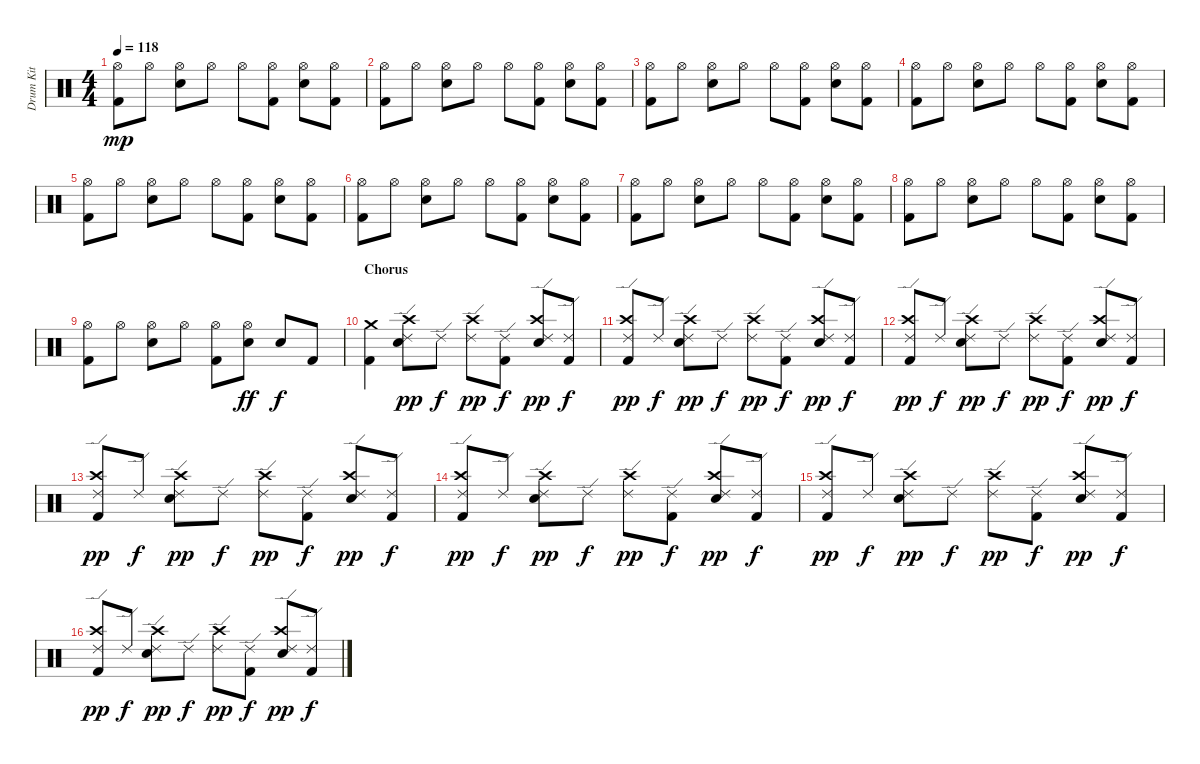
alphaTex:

\track ("Drum Kit" "Drum Kit") {instrument percussion}
\staff {score}
\articulation defaults
\ts (4 4)
\tempo 118
\clef neutral
\ks c
("Hi-Hat (open)" "Kick (hit) 2").8{dy mp} "Hi-Hat (open)".8 ("Hi-Hat (open)" "Electric Snare (hit)").8 "Hi-Hat (open)".8 "Hi-Hat (open)".8 ("Hi-Hat (open)" "Kick (hit) 2").8 ("Hi-Hat (open)" "Electric Snare (hit)").8 ("Hi-Hat (open)" "Kick (hit) 2").8 |
("Hi-Hat (open)" "Kick (hit) 2").8 "Hi-Hat (open)".8 ("Hi-Hat (open)" "Electric Snare (hit)").8 "Hi-Hat (open)".8 "Hi-Hat (open)".8 ("Hi-Hat (open)" "Kick (hit) 2").8 ("Hi-Hat (open)" "Electric Snare (hit)").8 ("Hi-Hat (open)" "Kick (hit) 2").8 |
("Hi-Hat (open)" "Kick (hit) 2").8 "Hi-Hat (open)".8 ("Hi-Hat (open)" "Electric Snare (hit)").8 "Hi-Hat (open)".8 "Hi-Hat (open)".8 ("Hi-Hat (open)" "Kick (hit) 2").8 ("Hi-Hat (open)" "Electric Snare (hit)").8 ("Hi-Hat (open)" "Kick (hit) 2").8 |
("Hi-Hat (open)" "Kick (hit) 2").8 "Hi-Hat (open)".8 ("Hi-Hat (open)" "Electric Snare (hit)").8 "Hi-Hat (open)".8 "Hi-Hat (open)".8 ("Hi-Hat (open)" "Kick (hit) 2").8 ("Hi-Hat (open)" "Electric Snare (hit)").8 ("Hi-Hat (open)" "Kick (hit) 2").8 |
("Hi-Hat (open)" "Kick (hit) 2").8 "Hi-Hat (open)".8 ("Hi-Hat (open)" "Electric Snare (hit)").8 "Hi-Hat (open)".8 "Hi-Hat (open)".8 ("Hi-Hat (open)" "Kick (hit) 2").8 ("Hi-Hat (open)" "Electric Snare (hit)").8 ("Hi-Hat (open)" "Kick (hit) 2").8 |
("Hi-Hat (open)" "Kick (hit) 2").8 "Hi-Hat (open)".8 ("Hi-Hat (open)" "Electric Snare (hit)").8 "Hi-Hat (open)".8 "Hi-Hat (open)".8 ("Hi-Hat (open)" "Kick (hit) 2").8 ("Hi-Hat (open)" "Electric Snare (hit)").8 ("Hi-Hat (open)" "Kick (hit) 2").8 |
("Hi-Hat (open)" "Kick (hit) 2").8 "Hi-Hat (open)".8 ("Hi-Hat (open)" "Electric Snare (hit)").8 "Hi-Hat (open)".8 "Hi-Hat (open)".8 ("Hi-Hat (open)" "Kick (hit) 2").8 ("Hi-Hat (open)" "Electric Snare (hit)").8 ("Hi-Hat (open)" "Kick (hit) 2").8 |
("Hi-Hat (open)" "Kick (hit) 2").8 "Hi-Hat (open)".8 ("Hi-Hat (open)" "Electric Snare (hit)").8 "Hi-Hat (open)".8 "Hi-Hat (open)".8 ("Hi-Hat (open)" "Kick (hit) 2").8 ("Hi-Hat (open)" "Electric Snare (hit)").8 ("Hi-Hat (open)" "Kick (hit) 2").8 |
("Hi-Hat (open)" "Kick (hit) 2").8 "Hi-Hat (open)".8 ("Hi-Hat (open)" "Electric Snare (hit)").8 "Hi-Hat (open)".8 ("Hi-Hat (open)" "Kick (hit) 2").8 ("Snare (hit)"{x} "Hi-Hat (open)").8{dy ff} "Electric Snare (hit)".8{dy f} "Kick (hit) 2".8 |
\section ("" "Chorus")
("Crash medium (hit)" "Kick (hit) 2").4 ("Crash high (hit)" "Ride (edge) 2" "Electric Snare (hit)").8{dy pp} "Ride (edge) 2".8{dy f} ("Crash high (hit)" "Ride (edge) 2").8{dy pp} ("Ride (edge) 2" "Kick (hit) 2").8{dy f} ("Crash high (hit)" "Ride (edge) 2" "Electric Snare (hit)").8{dy pp} ("Ride (edge) 2" "Kick (hit) 2").8{dy f} |
("Crash high (hit)" "Ride (edge) 2" "Kick (hit) 2").8{dy pp} "Ride (edge) 2".8{dy f} ("Crash high (hit)" "Ride (edge) 2" "Electric Snare (hit)").8{dy pp} "Ride (edge) 2".8{dy f} ("Crash high (hit)" "Ride (edge) 2").8{dy pp} ("Ride (edge) 2" "Kick (hit) 2").8{dy f} ("Crash high (hit)" "Ride (edge) 2" "Electric Snare (hit)").8{dy pp} ("Ride (edge) 2" "Kick (hit) 2").8{dy f} |
("Crash high (hit)" "Ride (edge) 2" "Kick (hit) 2").8{dy pp} "Ride (edge) 2".8{dy f} ("Crash high (hit)" "Ride (edge) 2" "Electric Snare (hit)").8{dy pp} "Ride (edge) 2".8{dy f} ("Crash high (hit)" "Ride (edge) 2").8{dy pp} ("Ride (edge) 2" "Kick (hit) 2").8{dy f} ("Crash high (hit)" "Ride (edge) 2" "Electric Snare (hit)").8{dy pp} ("Ride (edge) 2" "Kick (hit) 2").8{dy f} |
("Crash high (hit)" "Ride (edge) 2" "Kick (hit) 2").8{dy pp} "Ride (edge) 2".8{dy f} ("Crash high (hit)" "Ride (edge) 2" "Electric Snare (hit)").8{dy pp} "Ride (edge) 2".8{dy f} ("Crash high (hit)" "Ride (edge) 2").8{dy pp} ("Ride (edge) 2" "Kick (hit) 2").8{dy f} ("Crash high (hit)" "Ride (edge) 2" "Electric Snare (hit)").8{dy pp} ("Ride (edge) 2" "Kick (hit) 2").8{dy f} |
("Crash high (hit)" "Ride (edge) 2" "Kick (hit) 2").8{dy pp} "Ride (edge) 2".8{dy f} ("Crash high (hit)" "Ride (edge) 2" "Electric Snare (hit)").8{dy pp} "Ride (edge) 2".8{dy f} ("Crash high (hit)" "Ride (edge) 2").8{dy pp} ("Ride (edge) 2" "Kick (hit) 2").8{dy f} ("Crash high (hit)" "Ride (edge) 2" "Electric Snare (hit)").8{dy pp} ("Ride (edge) 2" "Kick (hit) 2").8{dy f} |
("Crash high (hit)" "Ride (edge) 2" "Kick (hit) 2").8{dy pp} "Ride (edge) 2".8{dy f} ("Crash high (hit)" "Ride (edge) 2" "Electric Snare (hit)").8{dy pp} "Ride (edge) 2".8{dy f} ("Crash high (hit)" "Ride (edge) 2").8{dy pp} ("Ride (edge) 2" "Kick (hit) 2").8{dy f} ("Crash high (hit)" "Ride (edge) 2" "Electric Snare (hit)").8{dy pp} ("Ride (edge) 2" "Kick (hit) 2").8{dy f} |
("Crash high (hit)" "Ride (edge) 2" "Kick (hit) 2").8{dy pp} "Ride (edge) 2".8{dy f} ("Crash high (hit)" "Ride (edge) 2" "Electric Snare (hit)").8{dy pp} "Ride (edge) 2".8{dy f} ("Crash high (hit)" "Ride (edge) 2").8{dy pp} ("Ride (edge) 2" "Kick (hit) 2").8{dy f} ("Crash high (hit)" "Ride (edge) 2" "Electric Snare (hit)").8{dy pp} ("Ride (edge) 2" "Kick (hit) 2").8{dy f}
